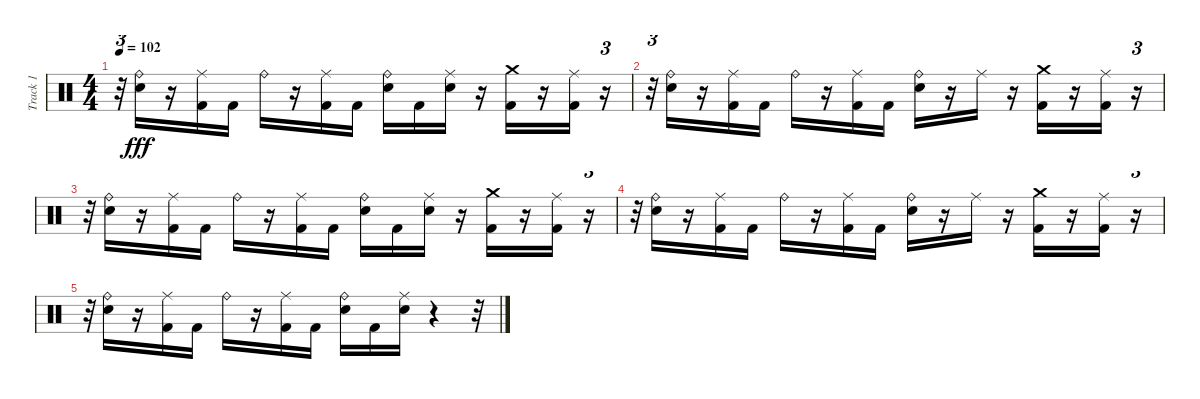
\track ("Track 1" "Track 1") {instrument percussion}
\staff {score}
\articulation defaults
\ts (4 4)
\tempo 102
\clef neutral
\ks c
r.32{tu (3 2) dy fff} ("Ride (bell)" "Snare (hit) 2").16 r.16 ("Ride (middle)" "Kick (hit) 2").16 "Kick (hit) 2".16 "Ride (bell)".16 r.16 ("Ride (middle)" "Kick (hit) 2").16 "Kick (hit) 2".16 ("Ride (bell)" "Snare (hit) 2").16 "Kick (hit) 2".16 ("Ride (middle)" "Snare (hit) 2").16 r.16 ("Kick (hit) 2" "Crash medium (hit)").16 r.16 ("Kick (hit) 2" "Ride (middle)").16 r.16{tu (3 2)} |
r.32{tu (3 2)} ("Ride (bell)" "Snare (hit) 2").16 r.16 ("Ride (middle)" "Kick (hit) 2").16 "Kick (hit) 2".16 "Ride (bell)".16 r.16 ("Ride (middle)" "Kick (hit) 2").16 "Kick (hit) 2".16 ("Ride (bell)" "Snare (hit) 2").16 r.16 "Ride (middle)".16 r.16 ("Kick (hit) 2" "Crash medium (hit)").16 r.16 ("Ride (middle)" "Kick (hit) 2").16 r.16{tu (3 2)} |
r.32{tu (3 2)} ("Ride (bell)" "Snare (hit) 2").16 r.16 ("Ride (middle)" "Kick (hit) 2").16 "Kick (hit) 2".16 "Ride (bell)".16 r.16 ("Ride (middle)" "Kick (hit) 2").16 "Kick (hit) 2".16 ("Ride (bell)" "Snare (hit) 2").16 "Kick (hit) 2".16 ("Ride (middle)" "Snare (hit) 2").16 r.16 ("Kick (hit) 2" "Crash medium (hit)").16 r.16 ("Ride (middle)" "Kick (hit) 2").16 r.16{tu (3 2)} |
r.32{tu (3 2)} ("Ride (bell)" "Snare (hit) 2").16 r.16 ("Ride (middle)" "Kick (hit) 2").16 "Kick (hit) 2".16 "Ride (bell)".16 r.16 ("Ride (middle)" "Kick (hit) 2").16 "Kick (hit) 2".16 ("Ride (bell)" "Snare (hit) 2").16 r.16 "Ride (middle)".16 r.16 ("Kick (hit) 2" "Crash medium (hit)").16 r.16 ("Ride (middle)" "Kick (hit) 2").16 r.16{tu (3 2)} |
r.32{tu (3 2)} ("Ride (bell)" "Snare (hit) 2").16 r.16 ("Ride (middle)" "Kick (hit) 2").16 "Kick (hit) 2".16 "Ride (bell)".16 r.16 ("Ride (middle)" "Kick (hit) 2").16 "Kick (hit) 2".16 ("Ride (bell)" "Snare (hit) 2").16 "Kick (hit) 2".16 ("Ride (middle)" "Snare (hit) 2").16 r.4 r.32
